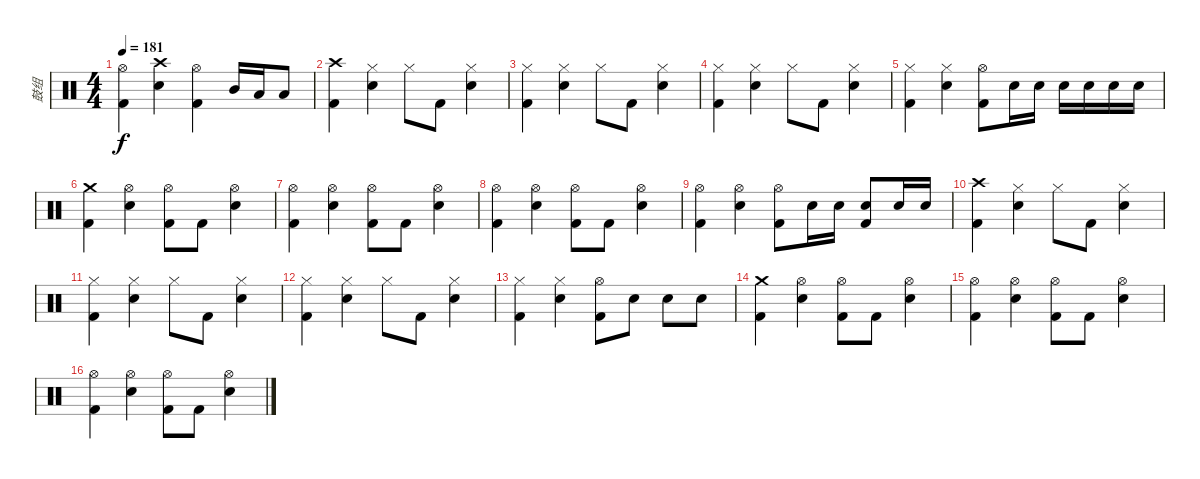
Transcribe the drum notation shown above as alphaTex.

\track ("鼓组" "鼓组") {instrument percussion}
\staff {score}
\articulation defaults
\ts (4 4)
\tempo 181
\clef neutral
\ks c
("Hi-Hat (open)" "Kick (hit) 2").4{dy f} ("Crash high (hit)" "Snare (hit) 2").4 ("Hi-Hat (open)" "Kick (hit) 2").4 "Mid Tom (hit)".16 "Low Tom (hit)".16 "Low Floor Tom (hit)".8 |
("Crash high (hit)" "Kick (hit) 2").4 ("Hi-Hat (closed)" "Snare (hit) 2").4 "Hi-Hat (closed)".8 "Kick (hit) 2".8 ("Hi-Hat (closed)" "Snare (hit) 2").4 |
("Hi-Hat (closed)" "Kick (hit) 2").4 ("Hi-Hat (closed)" "Snare (hit) 2").4 "Hi-Hat (closed)".8 "Kick (hit) 2".8 ("Hi-Hat (closed)" "Snare (hit) 2").4 |
("Hi-Hat (closed)" "Kick (hit) 2").4 ("Hi-Hat (closed)" "Snare (hit) 2").4 "Hi-Hat (closed)".8 "Kick (hit) 2".8 ("Hi-Hat (closed)" "Snare (hit) 2").4 |
("Hi-Hat (closed)" "Kick (hit) 2").4 ("Hi-Hat (closed)" "Snare (hit) 2").4 ("Hi-Hat (open)" "Kick (hit) 2").8 "Snare (hit) 2".16 "Snare (hit) 2".16 "Snare (hit) 2".16 "Snare (hit) 2".16 "Snare (hit) 2".16 "Snare (hit) 2".16 |
("Crash medium (hit)" "Kick (hit) 2").4 ("Hi-Hat (open)" "Snare (hit) 2").4 ("Hi-Hat (open)" "Kick (hit) 2").8 "Kick (hit) 2".8 ("Hi-Hat (open)" "Snare (hit) 2").4 |
("Hi-Hat (open)" "Kick (hit) 2").4 ("Hi-Hat (open)" "Snare (hit) 2").4 ("Hi-Hat (open)" "Kick (hit) 2").8 "Kick (hit) 2".8 ("Hi-Hat (open)" "Snare (hit) 2").4 |
("Hi-Hat (open)" "Kick (hit) 2").4 ("Hi-Hat (open)" "Snare (hit) 2").4 ("Hi-Hat (open)" "Kick (hit) 2").8 "Kick (hit) 2".8 ("Hi-Hat (open)" "Snare (hit) 2").4 |
("Hi-Hat (open)" "Kick (hit) 2").4 ("Hi-Hat (open)" "Snare (hit) 2").4 ("Hi-Hat (open)" "Kick (hit) 2").8 "Snare (hit) 2".16 "Snare (hit) 2".16 ("Snare (hit) 2" "Kick (hit) 2").8 "Snare (hit) 2".16 "Snare (hit) 2".16 |
("Crash high (hit)" "Kick (hit) 2").4 ("Hi-Hat (closed)" "Snare (hit) 2").4 "Hi-Hat (closed)".8 "Kick (hit) 2".8 ("Hi-Hat (closed)" "Snare (hit) 2").4 |
("Hi-Hat (closed)" "Kick (hit) 2").4 ("Hi-Hat (closed)" "Snare (hit) 2").4 "Hi-Hat (closed)".8 "Kick (hit) 2".8 ("Hi-Hat (closed)" "Snare (hit) 2").4 |
("Hi-Hat (closed)" "Kick (hit) 2").4 ("Hi-Hat (closed)" "Snare (hit) 2").4 "Hi-Hat (closed)".8 "Kick (hit) 2".8 ("Hi-Hat (closed)" "Snare (hit) 2").4 |
("Hi-Hat (closed)" "Kick (hit) 2").4 ("Hi-Hat (closed)" "Snare (hit) 2").4 ("Hi-Hat (open)" "Kick (hit) 2").8 "Snare (hit) 2".8 "Snare (hit) 2".8 "Snare (hit) 2".8 |
("Crash medium (hit)" "Kick (hit) 2").4 ("Hi-Hat (open)" "Snare (hit) 2").4 ("Hi-Hat (open)" "Kick (hit) 2").8 "Kick (hit) 2".8 ("Hi-Hat (open)" "Snare (hit) 2").4 |
("Hi-Hat (open)" "Kick (hit) 2").4 ("Hi-Hat (open)" "Snare (hit) 2").4 ("Hi-Hat (open)" "Kick (hit) 2").8 "Kick (hit) 2".8 ("Hi-Hat (open)" "Snare (hit) 2").4 |
("Hi-Hat (open)" "Kick (hit) 2").4 ("Hi-Hat (open)" "Snare (hit) 2").4 ("Hi-Hat (open)" "Kick (hit) 2").8 "Kick (hit) 2".8 ("Hi-Hat (open)" "Snare (hit) 2").4
